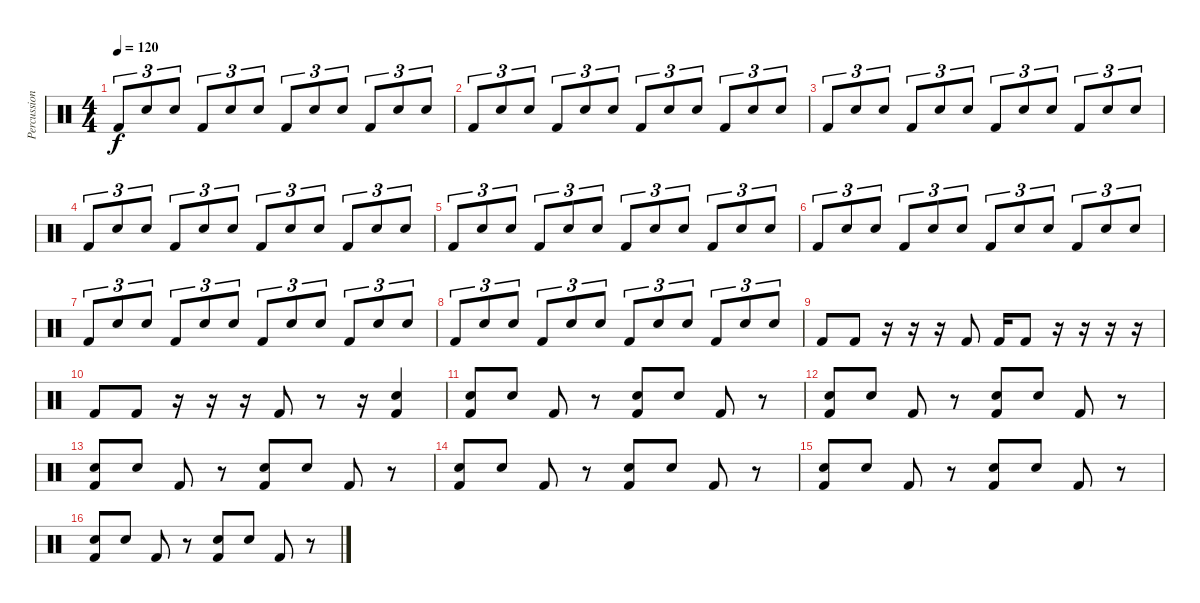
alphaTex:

\track ("Percussion" "Percussion") {instrument percussion}
\staff {score}
\articulation defaults
\ts (4 4)
\tempo 120
\clef neutral
\ks c "Kick (hit) 2".8{tu (3 2) dy f} "Electric Snare (hit)".8{tu (3 2)} "Electric Snare (hit)".8{tu (3 2)} "Kick (hit) 2".8{tu (3 2)} "Electric Snare (hit)".8{tu (3 2)} "Electric Snare (hit)".8{tu (3 2)} "Kick (hit) 2".8{tu (3 2)} "Electric Snare (hit)".8{tu (3 2)} "Electric Snare (hit)".8{tu (3 2)} "Kick (hit) 2".8{tu (3 2)} "Electric Snare (hit)".8{tu (3 2)} "Electric Snare (hit)".8{tu (3 2)}
|
"Kick (hit) 2".8{tu (3 2)} "Electric Snare (hit)".8{tu (3 2)} "Electric Snare (hit)".8{tu (3 2)} "Kick (hit) 2".8{tu (3 2)} "Electric Snare (hit)".8{tu (3 2)} "Electric Snare (hit)".8{tu (3 2)} "Kick (hit) 2".8{tu (3 2)} "Electric Snare (hit)".8{tu (3 2)} "Electric Snare (hit)".8{tu (3 2)} "Kick (hit) 2".8{tu (3 2)} "Electric Snare (hit)".8{tu (3 2)} "Electric Snare (hit)".8{tu (3 2)} |
"Kick (hit) 2".8{tu (3 2)} "Electric Snare (hit)".8{tu (3 2)} "Electric Snare (hit)".8{tu (3 2)} "Kick (hit) 2".8{tu (3 2)} "Electric Snare (hit)".8{tu (3 2)} "Electric Snare (hit)".8{tu (3 2)} "Kick (hit) 2".8{tu (3 2)} "Electric Snare (hit)".8{tu (3 2)} "Electric Snare (hit)".8{tu (3 2)} "Kick (hit) 2".8{tu (3 2)} "Electric Snare (hit)".8{tu (3 2)} "Electric Snare (hit)".8{tu (3 2)} |
"Kick (hit) 2".8{tu (3 2)} "Electric Snare (hit)".8{tu (3 2)} "Electric Snare (hit)".8{tu (3 2)} "Kick (hit) 2".8{tu (3 2)} "Electric Snare (hit)".8{tu (3 2)} "Electric Snare (hit)".8{tu (3 2)} "Kick (hit) 2".8{tu (3 2)} "Electric Snare (hit)".8{tu (3 2)} "Electric Snare (hit)".8{tu (3 2)} "Kick (hit) 2".8{tu (3 2)} "Electric Snare (hit)".8{tu (3 2)} "Electric Snare (hit)".8{tu (3 2)} |
"Kick (hit) 2".8{tu (3 2)} "Electric Snare (hit)".8{tu (3 2)} "Electric Snare (hit)".8{tu (3 2)} "Kick (hit) 2".8{tu (3 2)} "Electric Snare (hit)".8{tu (3 2)} "Electric Snare (hit)".8{tu (3 2)} "Kick (hit) 2".8{tu (3 2)} "Electric Snare (hit)".8{tu (3 2)} "Electric Snare (hit)".8{tu (3 2)} "Kick (hit) 2".8{tu (3 2)} "Electric Snare (hit)".8{tu (3 2)} "Electric Snare (hit)".8{tu (3 2)} |
"Kick (hit) 2".8{tu (3 2)} "Electric Snare (hit)".8{tu (3 2)} "Electric Snare (hit)".8{tu (3 2)} "Kick (hit) 2".8{tu (3 2)} "Electric Snare (hit)".8{tu (3 2)} "Electric Snare (hit)".8{tu (3 2)} "Kick (hit) 2".8{tu (3 2)} "Electric Snare (hit)".8{tu (3 2)} "Electric Snare (hit)".8{tu (3 2)} "Kick (hit) 2".8{tu (3 2)} "Electric Snare (hit)".8{tu (3 2)} "Electric Snare (hit)".8{tu (3 2)} |
"Kick (hit) 2".8{tu (3 2)} "Electric Snare (hit)".8{tu (3 2)} "Electric Snare (hit)".8{tu (3 2)} "Kick (hit) 2".8{tu (3 2)} "Electric Snare (hit)".8{tu (3 2)} "Electric Snare (hit)".8{tu (3 2)} "Kick (hit) 2".8{tu (3 2)} "Electric Snare (hit)".8{tu (3 2)} "Electric Snare (hit)".8{tu (3 2)} "Kick (hit) 2".8{tu (3 2)} "Electric Snare (hit)".8{tu (3 2)} "Electric Snare (hit)".8{tu (3 2)} |
"Kick (hit) 2".8{tu (3 2)} "Electric Snare (hit)".8{tu (3 2)} "Electric Snare (hit)".8{tu (3 2)} "Kick (hit) 2".8{tu (3 2)} "Electric Snare (hit)".8{tu (3 2)} "Electric Snare (hit)".8{tu (3 2)} "Kick (hit) 2".8{tu (3 2)} "Electric Snare (hit)".8{tu (3 2)} "Electric Snare (hit)".8{tu (3 2)} "Kick (hit) 2".8{tu (3 2)} "Electric Snare (hit)".8{tu (3 2)} "Electric Snare (hit)".8{tu (3 2)} |
"Kick (hit) 2".8 "Kick (hit) 2".8 r.16 r.16 r.16 "Kick (hit) 2".8 "Kick (hit) 2".16 "Kick (hit) 2".8 r.16 r.16 r.16 r.16 |
"Kick (hit) 2".8 "Kick (hit) 2".8 r.16 r.16 r.16 "Kick (hit) 2".8 r.8 r.16 ("Electric Snare (hit)" "Kick (hit) 2").4 |
("Electric Snare (hit)" "Kick (hit) 2").8 "Electric Snare (hit)".8 "Kick (hit) 2".8 r.8 ("Electric Snare (hit)" "Kick (hit) 2").8 "Electric Snare (hit)".8 "Kick (hit) 2".8 r.8 |
("Electric Snare (hit)" "Kick (hit) 2").8 "Electric Snare (hit)".8 "Kick (hit) 2".8 r.8 ("Electric Snare (hit)" "Kick (hit) 2").8 "Electric Snare (hit)".8 "Kick (hit) 2".8 r.8 |
("Electric Snare (hit)" "Kick (hit) 2").8 "Electric Snare (hit)".8 "Kick (hit) 2".8 r.8 ("Electric Snare (hit)" "Kick (hit) 2").8 "Electric Snare (hit)".8 "Kick (hit) 2".8 r.8 |
("Electric Snare (hit)" "Kick (hit) 2").8 "Electric Snare (hit)".8 "Kick (hit) 2".8 r.8 ("Electric Snare (hit)" "Kick (hit) 2").8 "Electric Snare (hit)".8 "Kick (hit) 2".8 r.8 |
("Electric Snare (hit)" "Kick (hit) 2").8 "Electric Snare (hit)".8 "Kick (hit) 2".8 r.8 ("Electric Snare (hit)" "Kick (hit) 2").8 "Electric Snare (hit)".8 "Kick (hit) 2".8 r.8 |
("Electric Snare (hit)" "Kick (hit) 2").8 "Electric Snare (hit)".8 "Kick (hit) 2".8 r.8 ("Electric Snare (hit)" "Kick (hit) 2").8 "Electric Snare (hit)".8 "Kick (hit) 2".8 r.8
